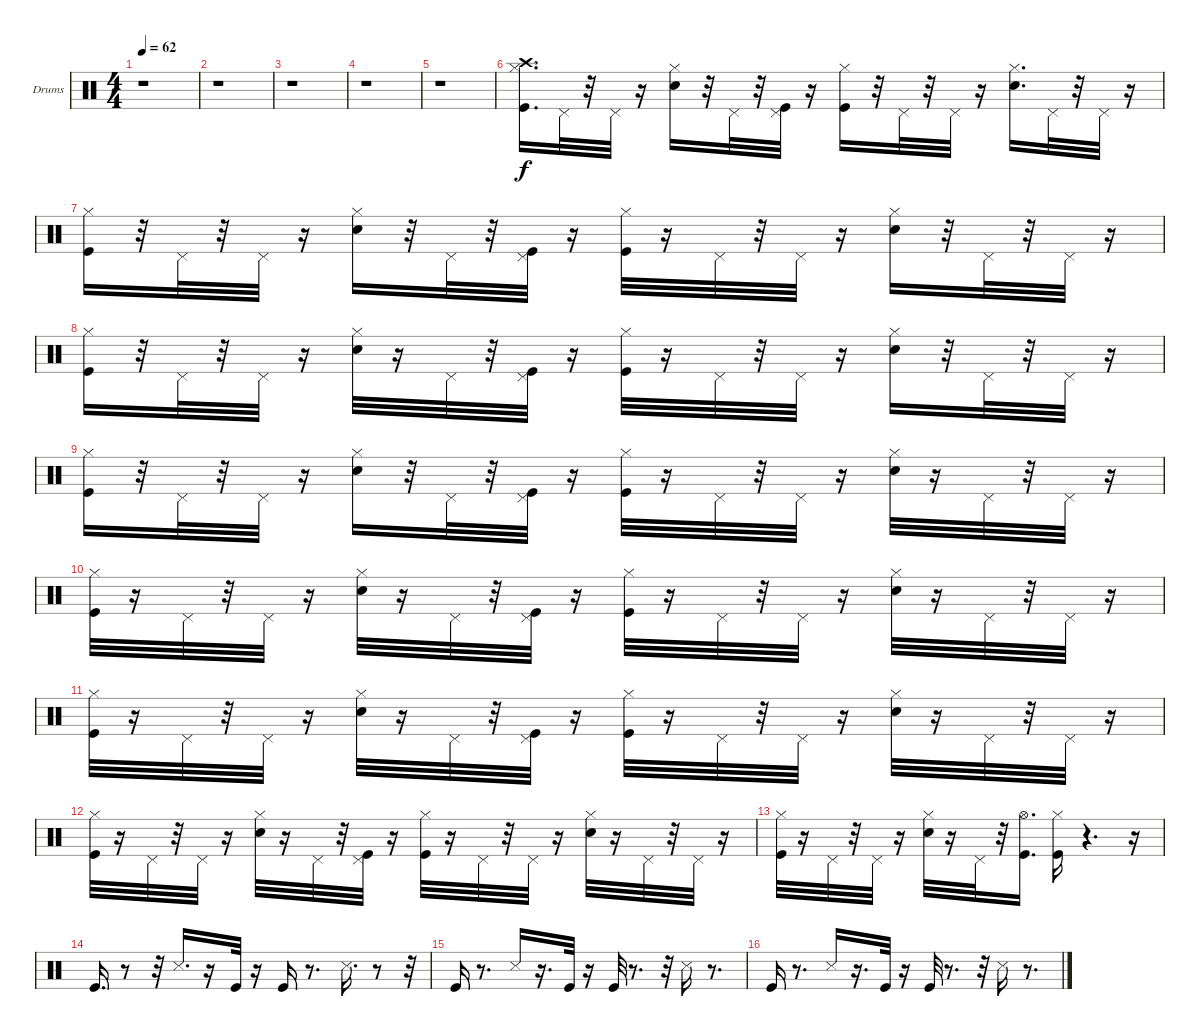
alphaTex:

\bracketExtendMode groupsimilarinstruments
\firstSystemTrackNameOrientation horizontal
\otherSystemsTrackNameOrientation horizontal
\track ("Ударные" "Drums") {instrument percussion}
\staff {score}
\articulation defaults
\ts (4 4)
\tempo 62
\clef neutral
\ks c
r.1{dy f} |
r.1 |
r.1 |
r.1 |
r.1 |
("Kick (hit)" "Hi-Hat (closed)" "Crash high (hit)").16{d} "Pedal Hi-Hat (hit)".32 r.32 "Pedal Hi-Hat (hit)".32 r.16 ("Snare (hit) 2" "Hi-Hat (closed)").16 r.32 "Pedal Hi-Hat (hit)".32 r.32 ("Kick (hit)" "Pedal Hi-Hat (hit)").32 r.16 ("Kick (hit)" "Hi-Hat (closed)").16 r.32 "Pedal Hi-Hat (hit)".32 r.32 "Pedal Hi-Hat (hit)".32 r.16 ("Snare (hit) 2" "Hi-Hat (closed)").16{d} "Pedal Hi-Hat (hit)".32 r.32 "Pedal Hi-Hat (hit)".32 r.16 |
("Kick (hit)" "Hi-Hat (closed)").16 r.32 "Pedal Hi-Hat (hit)".32 r.32 "Pedal Hi-Hat (hit)".32 r.16 ("Snare (hit) 2" "Hi-Hat (closed)").16 r.32 "Pedal Hi-Hat (hit)".32 r.32 ("Kick (hit)" "Pedal Hi-Hat (hit)").32 r.16 ("Kick (hit)" "Hi-Hat (closed)").32 r.16 "Pedal Hi-Hat (hit)".32 r.32 "Pedal Hi-Hat (hit)".32 r.16 ("Snare (hit) 2" "Hi-Hat (closed)").16 r.32 "Pedal Hi-Hat (hit)".32 r.32 "Pedal Hi-Hat (hit)".32 r.16 |
("Kick (hit)" "Hi-Hat (closed)").16 r.32 "Pedal Hi-Hat (hit)".32 r.32 "Pedal Hi-Hat (hit)".32 r.16 ("Snare (hit) 2" "Hi-Hat (closed)").32 r.16 "Pedal Hi-Hat (hit)".32 r.32 ("Kick (hit)" "Pedal Hi-Hat (hit)").32 r.16 ("Kick (hit)" "Hi-Hat (closed)").32 r.16 "Pedal Hi-Hat (hit)".32 r.32 "Pedal Hi-Hat (hit)".32 r.16 ("Snare (hit) 2" "Hi-Hat (closed)").16 r.32 "Pedal Hi-Hat (hit)".32 r.32 "Pedal Hi-Hat (hit)".32 r.16 |
("Kick (hit)" "Hi-Hat (closed)").16 r.32 "Pedal Hi-Hat (hit)".32 r.32 "Pedal Hi-Hat (hit)".32 r.16 ("Snare (hit) 2" "Hi-Hat (closed)").16 r.32 "Pedal Hi-Hat (hit)".32 r.32 ("Kick (hit)" "Pedal Hi-Hat (hit)").32 r.16 ("Kick (hit)" "Hi-Hat (closed)").32 r.16 "Pedal Hi-Hat (hit)".32 r.32 "Pedal Hi-Hat (hit)".32 r.16 ("Snare (hit) 2" "Hi-Hat (closed)").32 r.16 "Pedal Hi-Hat (hit)".32 r.32 "Pedal Hi-Hat (hit)".32 r.16 |
("Kick (hit)" "Hi-Hat (closed)").32 r.16 "Pedal Hi-Hat (hit)".32 r.32 "Pedal Hi-Hat (hit)".32 r.16 ("Snare (hit) 2" "Hi-Hat (closed)").32 r.16 "Pedal Hi-Hat (hit)".32 r.32 ("Kick (hit)" "Pedal Hi-Hat (hit)").32 r.16 ("Kick (hit)" "Hi-Hat (closed)").32 r.16 "Pedal Hi-Hat (hit)".32 r.32 "Pedal Hi-Hat (hit)".32 r.16 ("Snare (hit) 2" "Hi-Hat (closed)").32 r.16 "Pedal Hi-Hat (hit)".32 r.32 "Pedal Hi-Hat (hit)".32 r.16 |
("Kick (hit)" "Hi-Hat (closed)").32 r.16 "Pedal Hi-Hat (hit)".32 r.32 "Pedal Hi-Hat (hit)".32 r.16 ("Snare (hit) 2" "Hi-Hat (closed)").32 r.16 "Pedal Hi-Hat (hit)".32 r.32 ("Kick (hit)" "Pedal Hi-Hat (hit)").32 r.16 ("Kick (hit)" "Hi-Hat (closed)").32 r.16 "Pedal Hi-Hat (hit)".32 r.32 "Pedal Hi-Hat (hit)".32 r.16 ("Snare (hit) 2" "Hi-Hat (closed)").32 r.16 "Pedal Hi-Hat (hit)".32 r.32 "Pedal Hi-Hat (hit)".32 r.16 |
("Kick (hit)" "Hi-Hat (closed)").32 r.16 "Pedal Hi-Hat (hit)".32 r.32 "Pedal Hi-Hat (hit)".32 r.16 ("Snare (hit) 2" "Hi-Hat (closed)").32 r.16 "Pedal Hi-Hat (hit)".32 r.32 ("Kick (hit)" "Pedal Hi-Hat (hit)").32 r.16 ("Kick (hit)" "Hi-Hat (closed)").32 r.16 "Pedal Hi-Hat (hit)".32 r.32 "Pedal Hi-Hat (hit)".32 r.16 ("Snare (hit) 2" "Hi-Hat (closed)").32 r.16 "Pedal Hi-Hat (hit)".32 r.32 "Pedal Hi-Hat (hit)".32 r.16 |
("Kick (hit)" "Hi-Hat (closed)").32 r.16 "Pedal Hi-Hat (hit)".32 r.32 "Pedal Hi-Hat (hit)".32 r.16 ("Snare (hit) 2" "Hi-Hat (closed)").32 r.16 "Pedal Hi-Hat (hit)".32 r.32 ("Kick (hit)" "Hi-Hat (open)").16{d} ("Kick (hit)" "Hi-Hat (closed)").16 r.4{d} r.16 |
"Kick (hit)".16{d} r.8 r.32 "Snare (side stick) 3".16{d} r.16 "Kick (hit)".32 r.16 "Kick (hit)".16 r.8{d} "Snare (side stick) 3".16{d} r.8 r.32 |
"Kick (hit)".16 r.8{d} "Snare (side stick) 3".16 r.16{d} "Kick (hit)".32 r.16 "Kick (hit)".32 r.8{d} r.32 "Snare (side stick) 3".16 r.8{d} |
"Kick (hit)".16 r.8{d} "Snare (side stick) 3".16 r.16{d} "Kick (hit)".32 r.16 "Kick (hit)".32 r.8{d} r.32 "Snare (side stick) 3".16 r.8{d}
